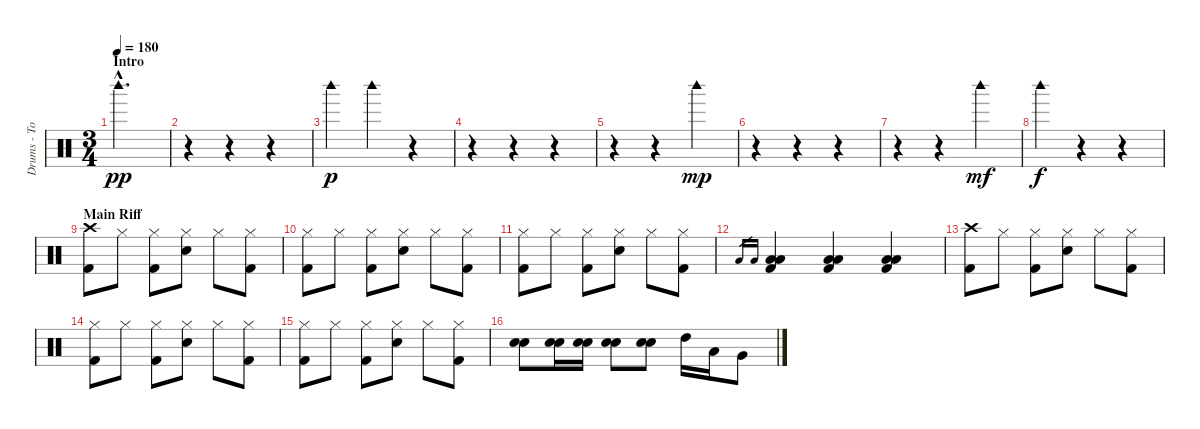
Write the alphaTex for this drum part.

\track ("Drums - Tomas" "Drums - To") {instrument percussion}
\staff {score}
\articulation defaults
\ts (3 4)
\section ("" "Intro")
\tempo 180
\clef neutral
\ks c "Woodblock high (hit)"{hac}.2{d dy pp}
|
r.4 r.4 r.4 |
"Woodblock high (hit)".4{dy p} "Woodblock high (hit)".4 r.4 |
r.4 r.4 r.4 |
r.4 r.4 "Woodblock high (hit)".4{dy mp} |
r.4 r.4 r.4 |
r.4 r.4 "Woodblock high (hit)".4{dy mf} |
"Woodblock high (hit)".4{dy f} r.4 r.4 |
\section ("" "Main Riff")
("Crash high (hit)" "Kick (hit) 2").8 "Hi-Hat (closed)".8 ("Hi-Hat (closed)" "Kick (hit) 2").8 ("Hi-Hat (closed)" "Electric Snare (hit)").8 "Hi-Hat (closed)".8 ("Hi-Hat (closed)" "Kick (hit) 2").8 |
("Hi-Hat (closed)" "Kick (hit) 2").8 "Hi-Hat (closed)".8 ("Hi-Hat (closed)" "Kick (hit) 2").8 ("Hi-Hat (closed)" "Electric Snare (hit)").8 "Hi-Hat (closed)".8 ("Hi-Hat (closed)" "Kick (hit) 2").8 |
("Hi-Hat (closed)" "Kick (hit) 2").8 "Hi-Hat (closed)".8 ("Hi-Hat (closed)" "Kick (hit) 2").8 ("Hi-Hat (closed)" "Electric Snare (hit)").8 "Hi-Hat (closed)".8 ("Hi-Hat (closed)" "Kick (hit) 2").8 |
"Low Tom (hit)".16{gr} "Low Tom (hit)".16{gr} ("Low Tom (hit)" "Low Tom (hit)" "Kick (hit) 2").4 ("Low Tom (hit)" "Low Tom (hit)" "Kick (hit) 2").4 ("Low Tom (hit)" "Low Tom (hit)" "Kick (hit) 2").4 |
("Crash high (hit)" "Kick (hit) 2").8 "Hi-Hat (closed)".8 ("Hi-Hat (closed)" "Kick (hit) 2").8 ("Hi-Hat (closed)" "Electric Snare (hit)").8 "Hi-Hat (closed)".8 ("Hi-Hat (closed)" "Kick (hit) 2").8 |
("Hi-Hat (closed)" "Kick (hit) 2").8 "Hi-Hat (closed)".8 ("Hi-Hat (closed)" "Kick (hit) 2").8 ("Hi-Hat (closed)" "Electric Snare (hit)").8 "Hi-Hat (closed)".8 ("Hi-Hat (closed)" "Kick (hit) 2").8 |
("Hi-Hat (closed)" "Kick (hit) 2").8 "Hi-Hat (closed)".8 ("Hi-Hat (closed)" "Kick (hit) 2").8 ("Hi-Hat (closed)" "Electric Snare (hit)").8 "Hi-Hat (closed)".8 ("Hi-Hat (closed)" "Kick (hit) 2").8 |
("Electric Snare (hit)" "Electric Snare (hit)").8 ("Electric Snare (hit)" "Electric Snare (hit)").16 ("Electric Snare (hit)" "Electric Snare (hit)").16 ("Electric Snare (hit)" "Electric Snare (hit)").8 ("Electric Snare (hit)" "Electric Snare (hit)").8 "High Tom (hit)".16 "Low Tom (hit)".16 "Very Low Tom (hit)".8
